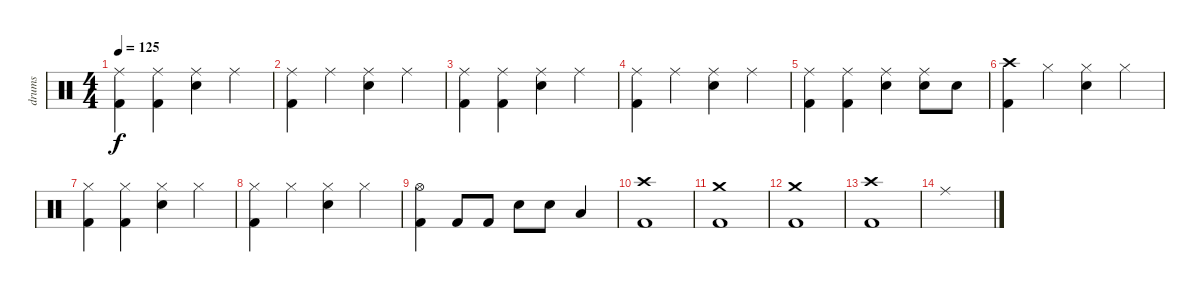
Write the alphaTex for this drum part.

\track ("drums" "drums") {instrument percussion}
\staff {score}
\articulation defaults
\ts (4 4)
\tempo 125
\clef neutral
\ks c
("Kick (hit) 2" "Ride (middle)").4{dy f} ("Kick (hit) 2" "Ride (middle)").4 ("Ride (middle)" "Electric Snare (hit)").4 "Ride (middle)".4 |
("Kick (hit) 2" "Ride (middle)").4 "Ride (middle)".4 ("Ride (middle)" "Electric Snare (hit)").4 "Ride (middle)".4 |
("Kick (hit) 2" "Ride (middle)").4 ("Kick (hit) 2" "Ride (middle)").4 ("Ride (middle)" "Electric Snare (hit)").4 "Ride (middle)".4 |
("Kick (hit) 2" "Ride (middle)").4 "Ride (middle)".4 ("Ride (middle)" "Electric Snare (hit)").4 "Ride (middle)".4 |
("Kick (hit) 2" "Ride (middle)").4 ("Kick (hit) 2" "Ride (middle)").4 ("Ride (middle)" "Electric Snare (hit)").4 ("Ride (middle)" "Electric Snare (hit)").8 "Electric Snare (hit)".8 |
("Kick (hit) 2" "Crash high (hit)").4 "Hi-Hat (closed)".4 ("Hi-Hat (closed)" "Electric Snare (hit)").4 "Hi-Hat (closed)".4 |
("Kick (hit) 2" "Hi-Hat (closed)").4 ("Kick (hit) 2" "Hi-Hat (closed)").4 ("Hi-Hat (closed)" "Electric Snare (hit)").4 "Hi-Hat (closed)".4 |
("Kick (hit) 2" "Hi-Hat (closed)").4 "Hi-Hat (closed)".4 ("Hi-Hat (closed)" "Electric Snare (hit)").4 "Hi-Hat (closed)".4 |
("Kick (hit) 2" "Hi-Hat (open)").4 "Kick (hit) 2".8 "Kick (hit) 2".8 "Electric Snare (hit)".8 "Electric Snare (hit)".8 "Low Floor Tom (hit)".4 |
("Kick (hit) 2" "Crash high (hit)").1 |
("Kick (hit) 2" "Crash medium (hit)").1 |
("Kick (hit) 2" "Crash medium (hit)").1 |
("Kick (hit) 2" "Crash high (hit)").1 |
"Ride (middle)".1
